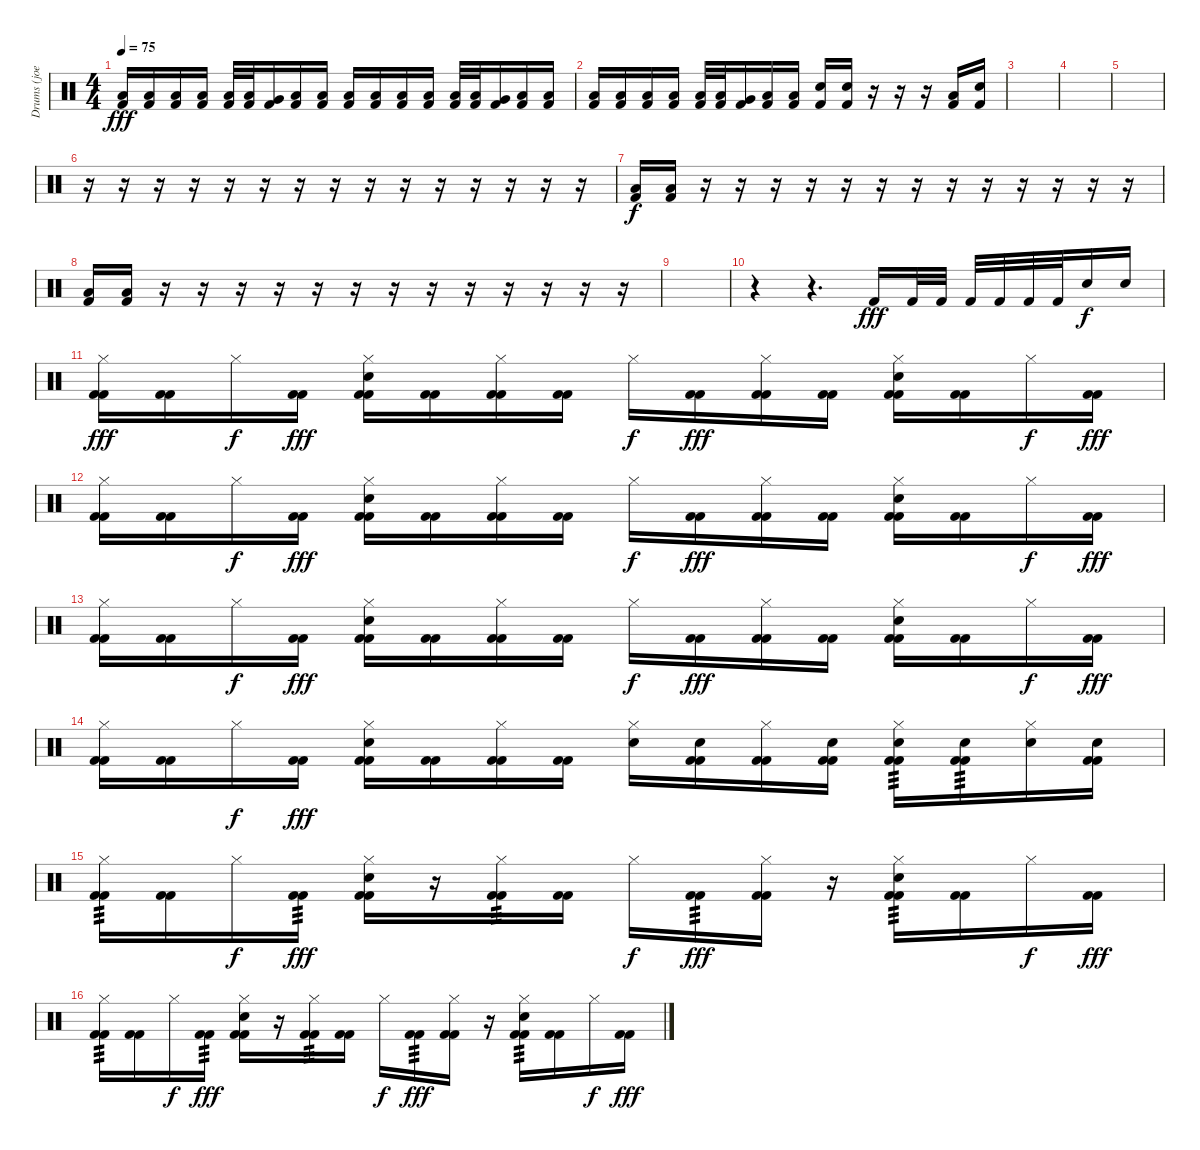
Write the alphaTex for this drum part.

\track ("Drums (joey)" "Drums (joe") {instrument percussion}
\staff {score}
\articulation defaults
\ts (4 4)
\tempo 75
\clef neutral
\ks c
("Low Floor Tom (hit)" "Kick (hit) 2").16{dy fff} ("Low Floor Tom (hit)" "Kick (hit) 2").16 ("Low Floor Tom (hit)" "Kick (hit) 2").16 ("Low Floor Tom (hit)" "Kick (hit) 2").16 ("Low Tom (hit)" "Kick (hit) 2").32 ("Low Tom (hit)" "Kick (hit) 2").32 ("Very Low Tom (hit)" "Kick (hit) 2").16 ("Low Floor Tom (hit)" "Kick (hit) 2").16 ("Low Floor Tom (hit)" "Kick (hit) 2").16 ("Low Floor Tom (hit)" "Kick (hit) 2").16 ("Low Floor Tom (hit)" "Kick (hit) 2").16 ("Low Floor Tom (hit)" "Kick (hit) 2").16 ("Low Floor Tom (hit)" "Kick (hit) 2").16 ("Low Tom (hit)" "Kick (hit) 2").32 ("Low Tom (hit)" "Kick (hit) 2").32 ("Very Low Tom (hit)" "Kick (hit) 2").16 ("Low Floor Tom (hit)" "Kick (hit) 2").16 ("Low Floor Tom (hit)" "Kick (hit) 2").16 |
("Low Floor Tom (hit)" "Kick (hit) 2").16 ("Low Floor Tom (hit)" "Kick (hit) 2").16 ("Low Floor Tom (hit)" "Kick (hit) 2").16 ("Low Floor Tom (hit)" "Kick (hit) 2").16 ("Low Tom (hit)" "Kick (hit) 2").32 ("Low Tom (hit)" "Kick (hit) 2").32 ("Very Low Tom (hit)" "Kick (hit) 2").16 ("Low Floor Tom (hit)" "Kick (hit) 2").16 ("Low Floor Tom (hit)" "Kick (hit) 2").16 ("Electric Snare (hit)" "Kick (hit) 2").16 ("Electric Snare (hit)" "Kick (hit) 2").16 r.16 r.16 r.16 ("Low Floor Tom (hit)" "Kick (hit) 2").16 ("Electric Snare (hit)" "Kick (hit) 2").16 |
|
|
|
r.16 r.16 r.16 r.16 r.16 r.16 r.16 r.16 r.16 r.16 r.16 r.16 r.16 r.16 r.16 |
("Low Floor Tom (hit)" "Kick (hit) 2").16{dy f} ("Low Floor Tom (hit)" "Kick (hit) 2").16 r.16 r.16 r.16 r.16 r.16 r.16 r.16 r.16 r.16 r.16 r.16 r.16 r.16 |
("Low Floor Tom (hit)" "Kick (hit) 2").16 ("Low Floor Tom (hit)" "Kick (hit) 2").16 r.16 r.16 r.16 r.16 r.16 r.16 r.16 r.16 r.16 r.16 r.16 r.16 r.16 |
|
r.4 r.4{d} "Kick (hit) 2".16{dy fff} "Kick (hit) 2".32 "Kick (hit) 2".32 "Kick (hit) 2".32 "Kick (hit) 2".32 "Kick (hit) 2".32 "Kick (hit) 2".32 "Electric Snare (hit)".16{dy f} "Electric Snare (hit)".16 |
("Hi-Hat (closed)" "Kick (hit) 2" "Kick (hit) 2").16{dy fff} ("Kick (hit) 2" "Kick (hit) 2").16 "Hi-Hat (closed)".16{dy f} ("Kick (hit) 2" "Kick (hit) 2").16{dy fff} ("Hi-Hat (closed)" "Electric Snare (hit)" "Kick (hit) 2" "Kick (hit) 2").16 ("Kick (hit) 2" "Kick (hit) 2").16 ("Hi-Hat (closed)" "Kick (hit) 2" "Kick (hit) 2").16 ("Kick (hit) 2" "Kick (hit) 2").16 "Hi-Hat (closed)".16{dy f} ("Kick (hit) 2" "Kick (hit) 2").16{dy fff} ("Hi-Hat (closed)" "Kick (hit) 2" "Kick (hit) 2").16 ("Kick (hit) 2" "Kick (hit) 2").16 ("Hi-Hat (closed)" "Electric Snare (hit)" "Kick (hit) 2" "Kick (hit) 2").16 ("Kick (hit) 2" "Kick (hit) 2").16 "Hi-Hat (closed)".16{dy f} ("Kick (hit) 2" "Kick (hit) 2").16{dy fff} |
("Hi-Hat (closed)" "Kick (hit) 2" "Kick (hit) 2").16 ("Kick (hit) 2" "Kick (hit) 2").16 "Hi-Hat (closed)".16{dy f} ("Kick (hit) 2" "Kick (hit) 2").16{dy fff} ("Hi-Hat (closed)" "Electric Snare (hit)" "Kick (hit) 2" "Kick (hit) 2").16 ("Kick (hit) 2" "Kick (hit) 2").16 ("Hi-Hat (closed)" "Kick (hit) 2" "Kick (hit) 2").16 ("Kick (hit) 2" "Kick (hit) 2").16 "Hi-Hat (closed)".16{dy f} ("Kick (hit) 2" "Kick (hit) 2").16{dy fff} ("Hi-Hat (closed)" "Kick (hit) 2" "Kick (hit) 2").16 ("Kick (hit) 2" "Kick (hit) 2").16 ("Hi-Hat (closed)" "Electric Snare (hit)" "Kick (hit) 2" "Kick (hit) 2").16 ("Kick (hit) 2" "Kick (hit) 2").16 "Hi-Hat (closed)".16{dy f} ("Kick (hit) 2" "Kick (hit) 2").16{dy fff} |
("Hi-Hat (closed)" "Kick (hit) 2" "Kick (hit) 2").16 ("Kick (hit) 2" "Kick (hit) 2").16 "Hi-Hat (closed)".16{dy f} ("Kick (hit) 2" "Kick (hit) 2").16{dy fff} ("Hi-Hat (closed)" "Electric Snare (hit)" "Kick (hit) 2" "Kick (hit) 2").16 ("Kick (hit) 2" "Kick (hit) 2").16 ("Hi-Hat (closed)" "Kick (hit) 2" "Kick (hit) 2").16 ("Kick (hit) 2" "Kick (hit) 2").16 "Hi-Hat (closed)".16{dy f} ("Kick (hit) 2" "Kick (hit) 2").16{dy fff} ("Hi-Hat (closed)" "Kick (hit) 2" "Kick (hit) 2").16 ("Kick (hit) 2" "Kick (hit) 2").16 ("Hi-Hat (closed)" "Electric Snare (hit)" "Kick (hit) 2" "Kick (hit) 2").16 ("Kick (hit) 2" "Kick (hit) 2").16 "Hi-Hat (closed)".16{dy f} ("Kick (hit) 2" "Kick (hit) 2").16{dy fff} |
("Hi-Hat (closed)" "Kick (hit) 2" "Kick (hit) 2").16 ("Kick (hit) 2" "Kick (hit) 2").16 "Hi-Hat (closed)".16{dy f} ("Kick (hit) 2" "Kick (hit) 2").16{dy fff} ("Hi-Hat (closed)" "Electric Snare (hit)" "Kick (hit) 2" "Kick (hit) 2").16 ("Kick (hit) 2" "Kick (hit) 2").16 ("Hi-Hat (closed)" "Kick (hit) 2" "Kick (hit) 2").16 ("Kick (hit) 2" "Kick (hit) 2").16 ("Hi-Hat (closed)" "Electric Snare (hit)").16 ("Electric Snare (hit)" "Kick (hit) 2" "Kick (hit) 2").16 ("Hi-Hat (closed)" "Kick (hit) 2" "Kick (hit) 2").16 ("Electric Snare (hit)" "Kick (hit) 2" "Kick (hit) 2").16 ("Hi-Hat (closed)" "Electric Snare (hit)" "Kick (hit) 2" "Kick (hit) 2").16{tp 3} ("Electric Snare (hit)" "Kick (hit) 2" "Kick (hit) 2").16{tp 3} ("Hi-Hat (closed)" "Electric Snare (hit)").16 ("Electric Snare (hit)" "Kick (hit) 2" "Kick (hit) 2").16 |
("Hi-Hat (closed)" "Kick (hit) 2" "Kick (hit) 2").16{tp 3} ("Kick (hit) 2" "Kick (hit) 2").16 "Hi-Hat (closed)".16{dy f} ("Kick (hit) 2" "Kick (hit) 2").16{tp 3 dy fff} ("Hi-Hat (closed)" "Electric Snare (hit)" "Kick (hit) 2" "Kick (hit) 2").16 r.16 ("Hi-Hat (closed)" "Kick (hit) 2" "Kick (hit) 2").16{tp 3} ("Kick (hit) 2" "Kick (hit) 2").16 "Hi-Hat (closed)".16{dy f} ("Kick (hit) 2" "Kick (hit) 2").16{tp 3 dy fff} ("Hi-Hat (closed)" "Kick (hit) 2" "Kick (hit) 2").16 r.16 ("Hi-Hat (closed)" "Electric Snare (hit)" "Kick (hit) 2" "Kick (hit) 2").16{tp 3} ("Kick (hit) 2" "Kick (hit) 2").16 "Hi-Hat (closed)".16{dy f} ("Kick (hit) 2" "Kick (hit) 2").16{dy fff} |
("Hi-Hat (closed)" "Kick (hit) 2" "Kick (hit) 2").16{tp 3} ("Kick (hit) 2" "Kick (hit) 2").16 "Hi-Hat (closed)".16{dy f} ("Kick (hit) 2" "Kick (hit) 2").16{tp 3 dy fff} ("Hi-Hat (closed)" "Electric Snare (hit)" "Kick (hit) 2" "Kick (hit) 2").16 r.16 ("Hi-Hat (closed)" "Kick (hit) 2" "Kick (hit) 2").16{tp 3} ("Kick (hit) 2" "Kick (hit) 2").16 "Hi-Hat (closed)".16{dy f} ("Kick (hit) 2" "Kick (hit) 2").16{tp 3 dy fff} ("Hi-Hat (closed)" "Kick (hit) 2" "Kick (hit) 2").16 r.16 ("Hi-Hat (closed)" "Electric Snare (hit)" "Kick (hit) 2" "Kick (hit) 2").16{tp 3} ("Kick (hit) 2" "Kick (hit) 2").16 "Hi-Hat (closed)".16{dy f} ("Kick (hit) 2" "Kick (hit) 2").16{dy fff}
